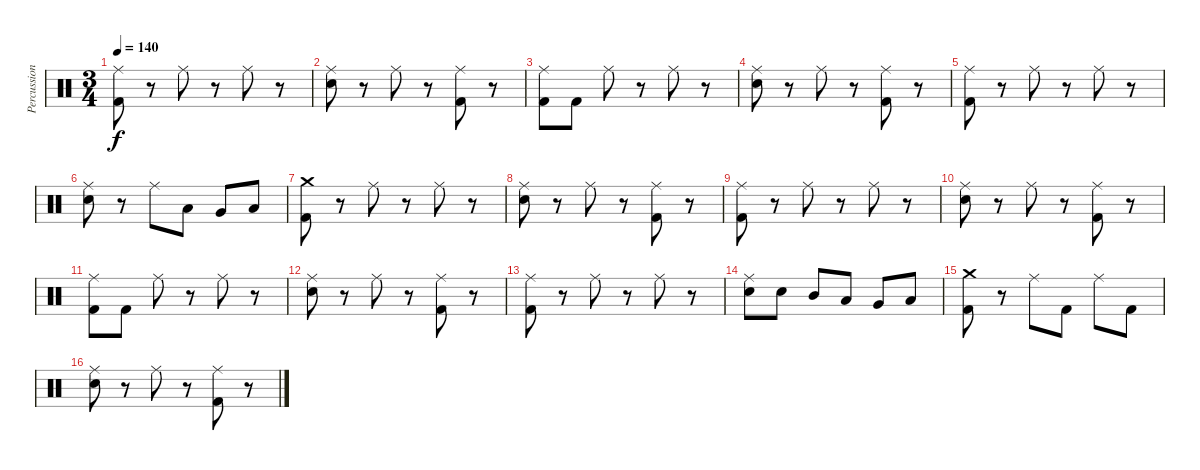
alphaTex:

\track ("Percussion" "Percussion") {instrument percussion}
\staff {score}
\articulation defaults
\ts (3 4)
\tempo 140
\clef neutral
\ks c
("Ride (middle)" "Kick (hit) 2").8{dy f} r.8 "Ride (middle)".8 r.8 "Ride (middle)".8 r.8 |
("Ride (middle)" "Electric Snare (hit)").8 r.8 "Ride (middle)".8 r.8 ("Ride (middle)" "Kick (hit) 2").8 r.8 |
("Ride (middle)" "Kick (hit) 2").8 "Kick (hit) 2".8 "Ride (middle)".8 r.8 "Ride (middle)".8 r.8 |
("Ride (middle)" "Electric Snare (hit)").8 r.8 "Ride (middle)".8 r.8 ("Ride (middle)" "Kick (hit) 2").8 r.8 |
("Ride (middle)" "Kick (hit) 2").8 r.8 "Ride (middle)".8 r.8 "Ride (middle)".8 r.8 |
("Ride (middle)" "Electric Snare (hit)").8 r.8 "Ride (middle)".8 "Low Tom (hit)".8 "Very Low Tom (hit)".8 "Low Floor Tom (hit)".8 |
("Crash medium (hit)" "Kick (hit) 2").8 r.8 "Ride (middle)".8 r.8 "Ride (middle)".8 r.8 |
("Ride (middle)" "Electric Snare (hit)").8 r.8 "Ride (middle)".8 r.8 ("Ride (middle)" "Kick (hit) 2").8 r.8 |
("Ride (middle)" "Kick (hit) 2").8 r.8 "Ride (middle)".8 r.8 "Ride (middle)".8 r.8 |
("Ride (middle)" "Electric Snare (hit)").8 r.8 "Ride (middle)".8 r.8 ("Ride (middle)" "Kick (hit) 2").8 r.8 |
("Ride (middle)" "Kick (hit) 2").8 "Kick (hit) 2".8 "Ride (middle)".8 r.8 "Ride (middle)".8 r.8 |
("Ride (middle)" "Electric Snare (hit)").8 r.8 "Ride (middle)".8 r.8 ("Ride (middle)" "Kick (hit) 2").8 r.8 |
("Ride (middle)" "Kick (hit) 2").8 r.8 "Ride (middle)".8 r.8 "Ride (middle)".8 r.8 |
("Ride (middle)" "Electric Snare (hit)").8 "Electric Snare (hit)".8 "Mid Tom (hit)".8 "Low Tom (hit)".8 "Very Low Tom (hit)".8 "Low Floor Tom (hit)".8 |
("Crash medium (hit)" "Kick (hit) 2").8 r.8 "Ride (middle)".8 "Kick (hit) 2".8 "Ride (middle)".8 "Kick (hit) 2".8 |
("Ride (middle)" "Electric Snare (hit)").8 r.8 "Ride (middle)".8 r.8 ("Ride (middle)" "Kick (hit) 2").8 r.8
